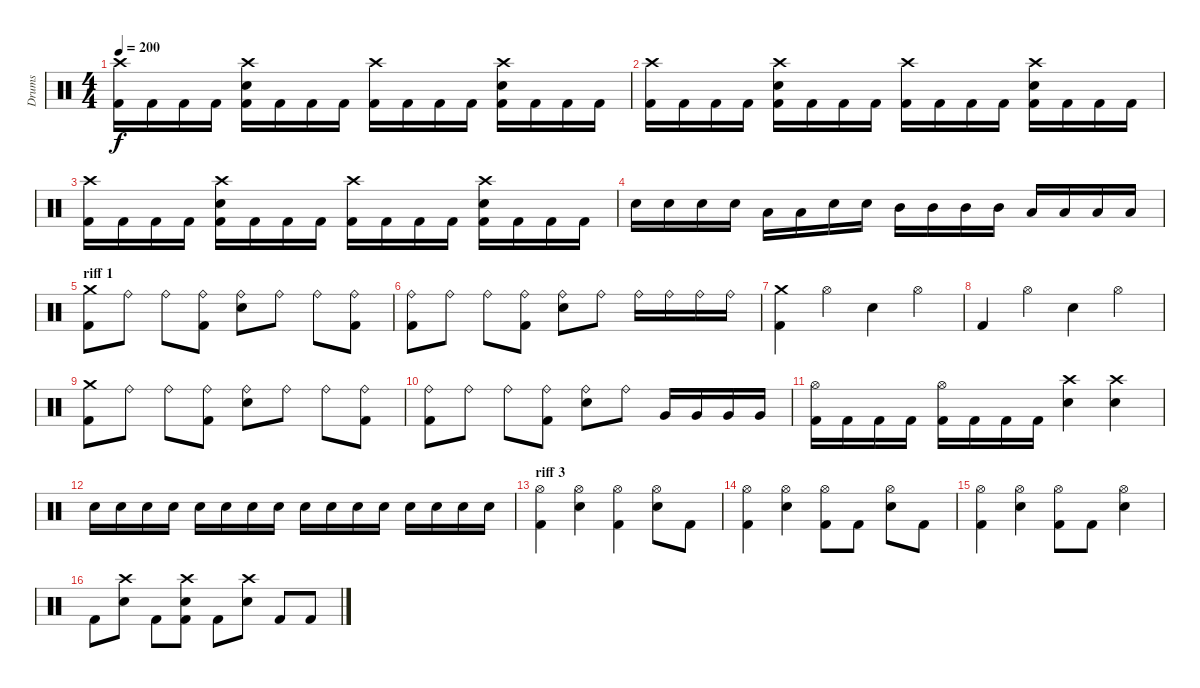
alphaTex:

\track ("Drums" "Drums") {instrument percussion}
\staff {score}
\articulation defaults
\ts (4 4)
\tempo 200
\clef neutral
\ks c
("Crash high (hit)" "Kick (hit) 2").16{dy f} "Kick (hit) 2".16 "Kick (hit) 2".16 "Kick (hit) 2".16 ("Crash high (hit)" "Electric Snare (hit)" "Kick (hit) 2").16 "Kick (hit) 2".16 "Kick (hit) 2".16 "Kick (hit) 2".16 ("Crash high (hit)" "Kick (hit) 2").16 "Kick (hit) 2".16 "Kick (hit) 2".16 "Kick (hit) 2".16 ("Crash high (hit)" "Electric Snare (hit)" "Kick (hit) 2").16 "Kick (hit) 2".16 "Kick (hit) 2".16 "Kick (hit) 2".16 |
("Crash high (hit)" "Kick (hit) 2").16 "Kick (hit) 2".16 "Kick (hit) 2".16 "Kick (hit) 2".16 ("Crash high (hit)" "Electric Snare (hit)" "Kick (hit) 2").16 "Kick (hit) 2".16 "Kick (hit) 2".16 "Kick (hit) 2".16 ("Crash high (hit)" "Kick (hit) 2").16 "Kick (hit) 2".16 "Kick (hit) 2".16 "Kick (hit) 2".16 ("Crash high (hit)" "Electric Snare (hit)" "Kick (hit) 2").16 "Kick (hit) 2".16 "Kick (hit) 2".16 "Kick (hit) 2".16 |
("Crash high (hit)" "Kick (hit) 2").16 "Kick (hit) 2".16 "Kick (hit) 2".16 "Kick (hit) 2".16 ("Crash high (hit)" "Electric Snare (hit)" "Kick (hit) 2").16 "Kick (hit) 2".16 "Kick (hit) 2".16 "Kick (hit) 2".16 ("Crash high (hit)" "Kick (hit) 2").16 "Kick (hit) 2".16 "Kick (hit) 2".16 "Kick (hit) 2".16 ("Crash high (hit)" "Electric Snare (hit)" "Kick (hit) 2").16 "Kick (hit) 2".16 "Kick (hit) 2".16 "Kick (hit) 2".16 |
"Electric Snare (hit)".16 "Electric Snare (hit)".16 "Electric Snare (hit)".16 "Electric Snare (hit)".16 "Low Tom (hit)".16 "Low Tom (hit)".16 "Electric Snare (hit)".16 "Electric Snare (hit)".16 "Mid Tom (hit)".16 "Mid Tom (hit)".16 "Mid Tom (hit)".16 "Mid Tom (hit)".16 "Low Tom (hit)".16 "Low Tom (hit)".16 "Low Tom (hit)".16 "Low Tom (hit)".16 |
\section ("" "riff 1")
("Crash medium (hit)" "Kick (hit) 2").8 "Ride (bell)".8 "Ride (bell)".8 ("Ride (bell)" "Kick (hit) 2").8 ("Ride (bell)" "Electric Snare (hit)").8 "Ride (bell)".8 "Ride (bell)".8 ("Ride (bell)" "Kick (hit) 2").8 |
("Ride (bell)" "Kick (hit) 2").8 "Ride (bell)".8 "Ride (bell)".8 ("Ride (bell)" "Kick (hit) 2").8 ("Ride (bell)" "Electric Snare (hit)").8 "Ride (bell)".8 "Ride (bell)".16 "Ride (bell)".16 "Ride (bell)".16 "Ride (bell)".16 |
("Crash medium (hit)" "Kick (hit) 2").4 "Hi-Hat (open)".4 "Electric Snare (hit)".4 "Hi-Hat (open)".4 |
"Kick (hit) 2".4 "Hi-Hat (open)".4 "Electric Snare (hit)".4 "Hi-Hat (open)".4 |
("Crash medium (hit)" "Kick (hit) 2").8 "Ride (bell)".8 "Ride (bell)".8 ("Ride (bell)" "Kick (hit) 2").8 ("Ride (bell)" "Electric Snare (hit)").8 "Ride (bell)".8 "Ride (bell)".8 ("Ride (bell)" "Kick (hit) 2").8 |
("Ride (bell)" "Kick (hit) 2").8 "Ride (bell)".8 "Ride (bell)".8 ("Ride (bell)" "Kick (hit) 2").8 ("Ride (bell)" "Electric Snare (hit)").8 "Ride (bell)".8 "Very Low Tom (hit)".16 "Very Low Tom (hit)".16 "Very Low Tom (hit)".16 "Very Low Tom (hit)".16 |
("Hi-Hat (open)" "Kick (hit) 2").16 "Kick (hit) 2".16 "Kick (hit) 2".16 "Kick (hit) 2".16 ("Hi-Hat (open)" "Kick (hit) 2").16 "Kick (hit) 2".16 "Kick (hit) 2".16 "Kick (hit) 2".16 ("Crash high (hit)" "Electric Snare (hit)").4 ("Crash high (hit)" "Electric Snare (hit)").4 |
"Electric Snare (hit)".16 "Electric Snare (hit)".16 "Electric Snare (hit)".16 "Electric Snare (hit)".16 "Electric Snare (hit)".16 "Electric Snare (hit)".16 "Electric Snare (hit)".16 "Electric Snare (hit)".16 "Electric Snare (hit)".16 "Electric Snare (hit)".16 "Electric Snare (hit)".16 "Electric Snare (hit)".16 "Electric Snare (hit)".16 "Electric Snare (hit)".16 "Electric Snare (hit)".16 "Electric Snare (hit)".16 |
\section ("" "riff 3")
("Hi-Hat (open)" "Kick (hit) 2").4 ("Hi-Hat (open)" "Electric Snare (hit)").4 ("Hi-Hat (open)" "Kick (hit) 2").4 ("Hi-Hat (open)" "Electric Snare (hit)").8 "Kick (hit) 2".8 |
("Hi-Hat (open)" "Kick (hit) 2").4 ("Hi-Hat (open)" "Electric Snare (hit)").4 ("Hi-Hat (open)" "Kick (hit) 2").8 "Kick (hit) 2".8 ("Hi-Hat (open)" "Electric Snare (hit)").8 "Kick (hit) 2".8 |
("Hi-Hat (open)" "Kick (hit) 2").4 ("Hi-Hat (open)" "Electric Snare (hit)").4 ("Hi-Hat (open)" "Kick (hit) 2").8 "Kick (hit) 2".8 ("Hi-Hat (open)" "Electric Snare (hit)").4 |
"Kick (hit) 2".8 ("Crash high (hit)" "Electric Snare (hit)").8 "Kick (hit) 2".8 ("Crash high (hit)" "Electric Snare (hit)" "Kick (hit) 2").8 "Kick (hit) 2".8 ("Crash high (hit)" "Electric Snare (hit)").8 "Kick (hit) 2".8 "Kick (hit) 2".8
